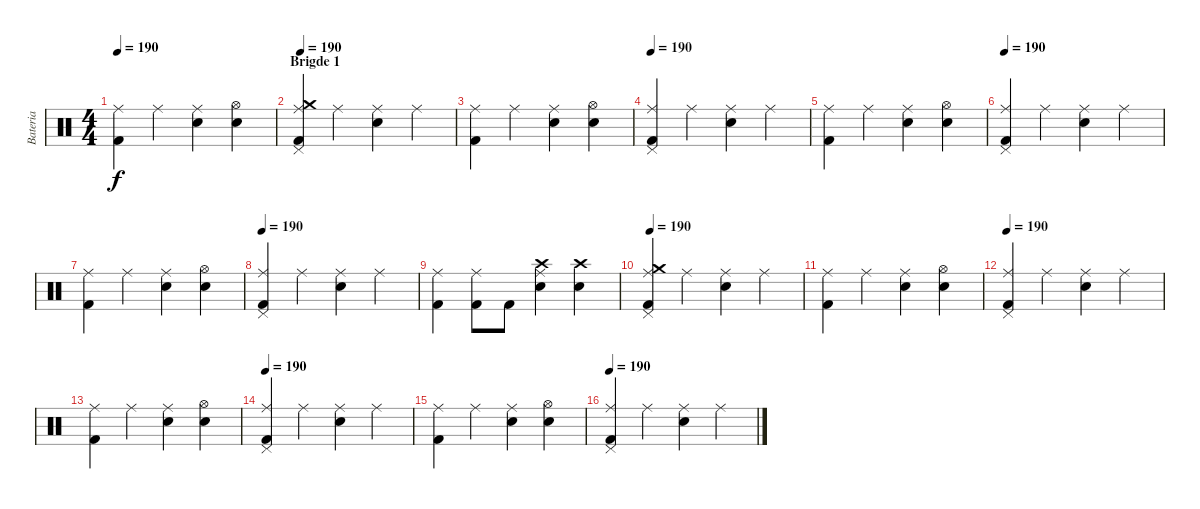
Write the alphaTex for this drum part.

\track ("Bateria" "Bateria") {instrument percussion}
\staff {score}
\articulation defaults
\ts (4 4)
\tempo 190
\clef neutral
\ks c
("Kick (hit) 2" "Ride (middle)").4{dy f} "Ride (middle)".4 ("Snare (hit) 2" "Ride (middle)").4 ("Hi-Hat (open)" "Snare (hit) 2").4 |
\section ("" "Brigde 1")
\tempo 190
("Crash medium (hit)" "Pedal Hi-Hat (hit)" "Kick (hit) 2" "Ride (middle)").4 "Ride (middle)".4 ("Snare (hit) 2" "Ride (middle)").4 "Ride (middle)".4 |
("Kick (hit) 2" "Ride (middle)").4 "Ride (middle)".4 ("Snare (hit) 2" "Ride (middle)").4 ("Hi-Hat (open)" "Snare (hit) 2").4 |
\tempo 190
("Pedal Hi-Hat (hit)" "Kick (hit) 2" "Ride (middle)").4 "Ride (middle)".4 ("Snare (hit) 2" "Ride (middle)").4 "Ride (middle)".4 |
("Kick (hit) 2" "Ride (middle)").4 "Ride (middle)".4 ("Snare (hit) 2" "Ride (middle)").4 ("Hi-Hat (open)" "Snare (hit) 2").4 |
\tempo 190
("Pedal Hi-Hat (hit)" "Kick (hit) 2" "Ride (middle)").4 "Ride (middle)".4 ("Snare (hit) 2" "Ride (middle)").4 "Ride (middle)".4 |
("Kick (hit) 2" "Ride (middle)").4 "Ride (middle)".4 ("Snare (hit) 2" "Ride (middle)").4 ("Hi-Hat (open)" "Snare (hit) 2").4 |
\tempo 190
("Pedal Hi-Hat (hit)" "Kick (hit) 2" "Ride (middle)").4 "Ride (middle)".4 ("Snare (hit) 2" "Ride (middle)").4 "Ride (middle)".4 |
("Kick (hit) 2" "Ride (middle)").4 ("Kick (hit) 2" "Ride (middle)").8 "Kick (hit) 2".8 ("Crash high (hit)" "Snare (hit) 2" "Ride (middle)").4 ("Crash high (hit)" "Snare (hit) 2").4 |
\tempo 190
("Crash medium (hit)" "Pedal Hi-Hat (hit)" "Kick (hit) 2" "Ride (middle)").4 "Ride (middle)".4 ("Snare (hit) 2" "Ride (middle)").4 "Ride (middle)".4 |
("Kick (hit) 2" "Ride (middle)").4 "Ride (middle)".4 ("Snare (hit) 2" "Ride (middle)").4 ("Hi-Hat (open)" "Snare (hit) 2").4 |
\tempo 190
("Pedal Hi-Hat (hit)" "Kick (hit) 2" "Ride (middle)").4 "Ride (middle)".4 ("Snare (hit) 2" "Ride (middle)").4 "Ride (middle)".4 |
("Kick (hit) 2" "Ride (middle)").4 "Ride (middle)".4 ("Snare (hit) 2" "Ride (middle)").4 ("Hi-Hat (open)" "Snare (hit) 2").4 |
\tempo 190
("Pedal Hi-Hat (hit)" "Kick (hit) 2" "Ride (middle)").4 "Ride (middle)".4 ("Snare (hit) 2" "Ride (middle)").4 "Ride (middle)".4 |
("Kick (hit) 2" "Ride (middle)").4 "Ride (middle)".4 ("Snare (hit) 2" "Ride (middle)").4 ("Hi-Hat (open)" "Snare (hit) 2").4 |
\tempo 190
("Pedal Hi-Hat (hit)" "Kick (hit) 2" "Ride (middle)").4 "Ride (middle)".4 ("Snare (hit) 2" "Ride (middle)").4 "Ride (middle)".4
